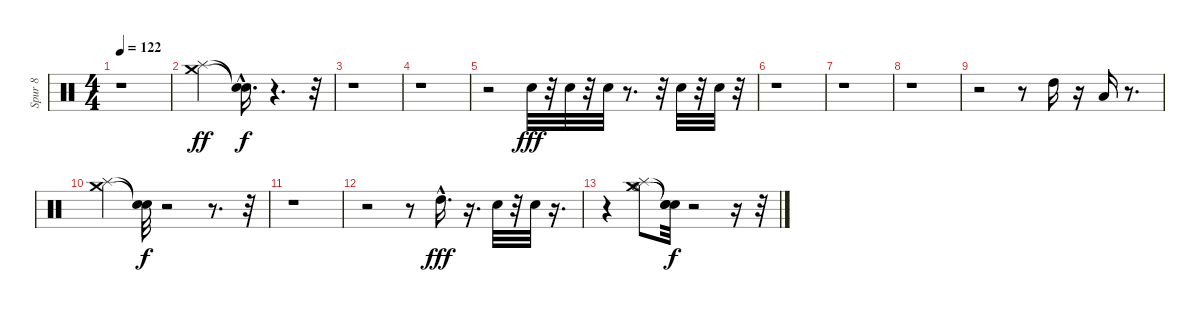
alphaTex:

\track ("Spur 8" "Spur 8") {instrument percussion}
\staff {score}
\articulation defaults
\ts (4 4)
\tempo 122
\clef neutral
\ks c
r.1{dy f} |
("Splash (hit)" "Crash medium (hit)").2{dy ff} ("Snare (hit)"{hac t} "Snare (hit)"{hac t}).16{d dy f} r.4{d} r.32 |
r.1 |
r.1 |
r.2 "Metronome (bell)".32{dy fff} r.32 "Metronome (bell)".32 r.32 "Metronome (bell)".32 r.8{d} r.32 "Metronome (bell)".32 r.32 "Metronome (bell)".32 r.32 |
r.1 |
r.1 |
r.1 |
r.2 r.8 "High Tom (hit)".16 r.16 "Low Tom (hit)".16 r.8{d} |
("Splash (hit)" "Crash medium (hit)").4 ("Snare (hit)"{t} "Snare (hit)"{t}).32{dy f} r.2 r.8{d} r.32 |
r.1 |
r.2 r.8 "High Tom (hit)"{hac}.16{d dy fff} r.16{d} "Metronome (bell)".32 r.32 "Metronome (bell)".32 r.16{d} |
r.4 ("Splash (hit)" "Hi-Hat (open)" "Crash medium (hit)").8 ("Snare (hit)"{t} "Snare (hit)"{t} "Snare (hit)"{t}).32{dy f} r.2 r.16 r.32
